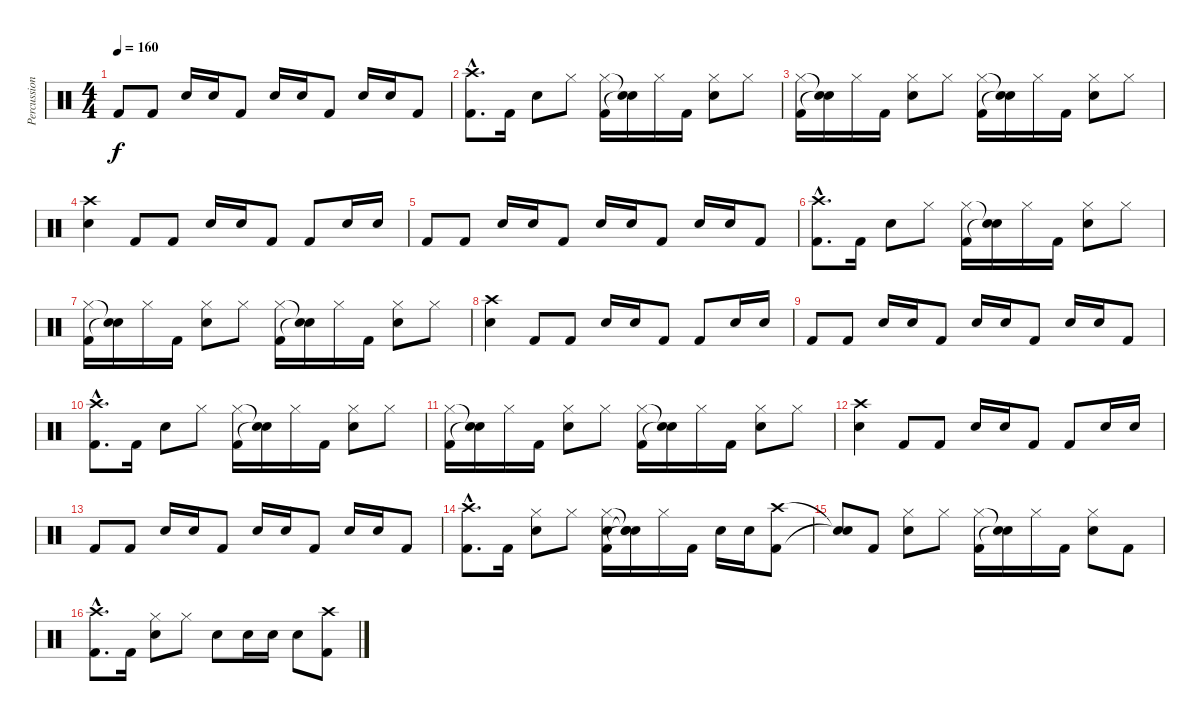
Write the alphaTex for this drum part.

\track ("Percussion" "Percussion") {instrument percussion}
\staff {score}
\articulation defaults
\ts (4 4)
\tempo 160
\clef neutral
\ks c "Kick (hit) 2".8{dy f} "Kick (hit) 2".8 "Snare (hit) 2".16 "Snare (hit) 2".16 "Kick (hit) 2".8 "Snare (hit) 2".16 "Snare (hit) 2".16 "Kick (hit) 2".8 "Snare (hit) 2".16 "Snare (hit) 2".16 "Kick (hit) 2".8
|
("Crash high (hit)"{hac} "Kick (hit) 2"{hac}).8{d} "Kick (hit) 2".16 "Snare (hit) 2".8 "Hi-Hat (closed)".8 ("Hi-Hat (closed)" "Kick (hit) 2").16 ("Snare (hit)"{t} "Snare (hit)"{t}).16 "Hi-Hat (closed)".16 "Kick (hit) 2".16 ("Hi-Hat (closed)" "Snare (hit) 2").8 "Hi-Hat (closed)".8 |
("Hi-Hat (closed)" "Kick (hit) 2").16 ("Snare (hit)"{t} "Snare (hit)"{t}).16 "Hi-Hat (closed)".16 "Kick (hit) 2".16 ("Hi-Hat (closed)" "Snare (hit) 2").8 "Hi-Hat (closed)".8 ("Hi-Hat (closed)" "Kick (hit) 2").16 ("Snare (hit)"{t} "Snare (hit)"{t}).16 "Hi-Hat (closed)".16 "Kick (hit) 2".16 ("Hi-Hat (closed)" "Snare (hit) 2").8 "Hi-Hat (closed)".8 |
("Crash high (hit)" "Snare (hit) 2").4 "Kick (hit) 2".8 "Kick (hit) 2".8 "Snare (hit) 2".16 "Snare (hit) 2".16 "Kick (hit) 2".8 "Kick (hit) 2".8 "Snare (hit) 2".16 "Snare (hit) 2".16 |
"Kick (hit) 2".8 "Kick (hit) 2".8 "Snare (hit) 2".16 "Snare (hit) 2".16 "Kick (hit) 2".8 "Snare (hit) 2".16 "Snare (hit) 2".16 "Kick (hit) 2".8 "Snare (hit) 2".16 "Snare (hit) 2".16 "Kick (hit) 2".8 |
("Crash high (hit)"{hac} "Kick (hit) 2"{hac}).8{d} "Kick (hit) 2".16 "Snare (hit) 2".8 "Hi-Hat (closed)".8 ("Hi-Hat (closed)" "Kick (hit) 2").16 ("Snare (hit)"{t} "Snare (hit)"{t}).16 "Hi-Hat (closed)".16 "Kick (hit) 2".16 ("Hi-Hat (closed)" "Snare (hit) 2").8 "Hi-Hat (closed)".8 |
("Hi-Hat (closed)" "Kick (hit) 2").16 ("Snare (hit)"{t} "Snare (hit)"{t}).16 "Hi-Hat (closed)".16 "Kick (hit) 2".16 ("Hi-Hat (closed)" "Snare (hit) 2").8 "Hi-Hat (closed)".8 ("Hi-Hat (closed)" "Kick (hit) 2").16 ("Snare (hit)"{t} "Snare (hit)"{t}).16 "Hi-Hat (closed)".16 "Kick (hit) 2".16 ("Hi-Hat (closed)" "Snare (hit) 2").8 "Hi-Hat (closed)".8 |
("Crash high (hit)" "Snare (hit) 2").4 "Kick (hit) 2".8 "Kick (hit) 2".8 "Snare (hit) 2".16 "Snare (hit) 2".16 "Kick (hit) 2".8 "Kick (hit) 2".8 "Snare (hit) 2".16 "Snare (hit) 2".16 |
"Kick (hit) 2".8 "Kick (hit) 2".8 "Snare (hit) 2".16 "Snare (hit) 2".16 "Kick (hit) 2".8 "Snare (hit) 2".16 "Snare (hit) 2".16 "Kick (hit) 2".8 "Snare (hit) 2".16 "Snare (hit) 2".16 "Kick (hit) 2".8 |
("Crash high (hit)"{hac} "Kick (hit) 2"{hac}).8{d} "Kick (hit) 2".16 "Snare (hit) 2".8 "Hi-Hat (closed)".8 ("Hi-Hat (closed)" "Kick (hit) 2").16 ("Snare (hit)"{t} "Snare (hit)"{t}).16 "Hi-Hat (closed)".16 "Kick (hit) 2".16 ("Hi-Hat (closed)" "Snare (hit) 2").8 "Hi-Hat (closed)".8 |
("Hi-Hat (closed)" "Kick (hit) 2").16 ("Snare (hit)"{t} "Snare (hit)"{t}).16 "Hi-Hat (closed)".16 "Kick (hit) 2".16 ("Hi-Hat (closed)" "Snare (hit) 2").8 "Hi-Hat (closed)".8 ("Hi-Hat (closed)" "Kick (hit) 2").16 ("Snare (hit)"{t} "Snare (hit)"{t}).16 "Hi-Hat (closed)".16 "Kick (hit) 2".16 ("Hi-Hat (closed)" "Snare (hit) 2").8 "Hi-Hat (closed)".8 |
("Crash high (hit)" "Snare (hit) 2").4 "Kick (hit) 2".8 "Kick (hit) 2".8 "Snare (hit) 2".16 "Snare (hit) 2".16 "Kick (hit) 2".8 "Kick (hit) 2".8 "Snare (hit) 2".16 "Snare (hit) 2".16 |
"Kick (hit) 2".8 "Kick (hit) 2".8 "Snare (hit) 2".16 "Snare (hit) 2".16 "Kick (hit) 2".8 "Snare (hit) 2".16 "Snare (hit) 2".16 "Kick (hit) 2".8 "Snare (hit) 2".16 "Snare (hit) 2".16 "Kick (hit) 2".8 |
("Crash high (hit)"{hac} "Kick (hit) 2"{hac}).8{d} "Kick (hit) 2".16 ("Hi-Hat (closed)" "Snare (hit) 2").8 "Hi-Hat (closed)".8 ("Hi-Hat (closed)" "Snare (hit) 2" "Kick (hit) 2").16 ("Snare (hit)"{t} "Snare (hit)"{t} "Snare (hit)"{t}).16 "Hi-Hat (closed)".16 "Kick (hit) 2".16 "Snare (hit) 2".16 "Snare (hit) 2".16 ("Crash high (hit)" "Kick (hit) 2").8 |
("Snare (hit)"{t} "Snare (hit)"{t}).8 "Kick (hit) 2".8 ("Hi-Hat (closed)" "Snare (hit) 2").8 "Hi-Hat (closed)".8 ("Hi-Hat (closed)" "Kick (hit) 2").16 ("Snare (hit)"{t} "Snare (hit)"{t}).16 "Hi-Hat (closed)".16 "Kick (hit) 2".16 ("Hi-Hat (closed)" "Snare (hit) 2").8 "Kick (hit) 2".8 |
("Crash high (hit)"{hac} "Kick (hit) 2"{hac}).8{d} "Kick (hit) 2".16 ("Hi-Hat (closed)" "Snare (hit) 2").8 "Hi-Hat (closed)".8 "Snare (hit) 2".8 "Snare (hit) 2".16 "Snare (hit) 2".16 "Snare (hit) 2".8 ("Crash high (hit)" "Kick (hit) 2").8
